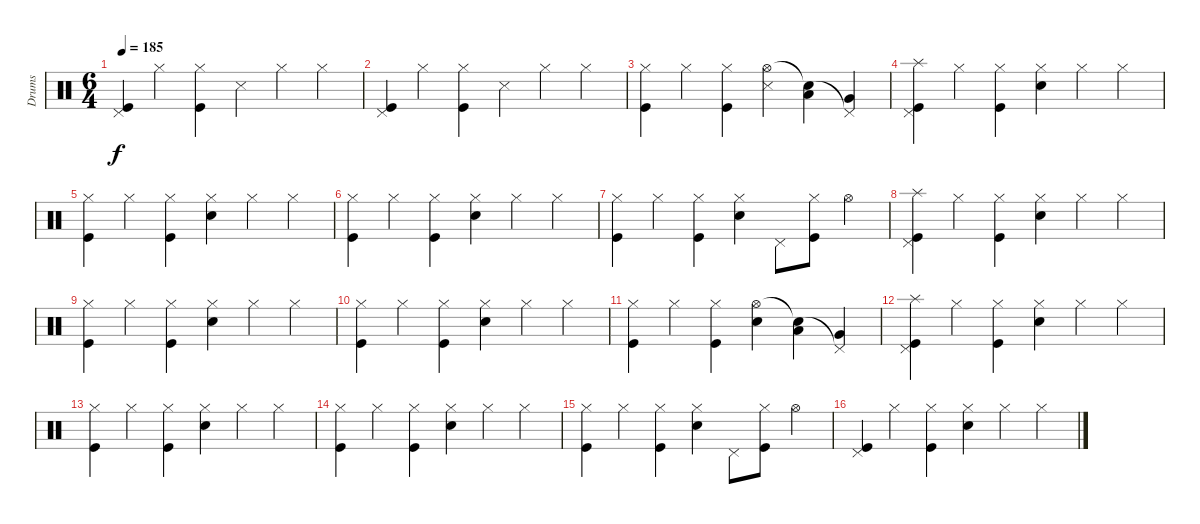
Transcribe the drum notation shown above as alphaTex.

\track ("Drums" "Drums") {instrument percussion}
\staff {score}
\articulation defaults
\ts (6 4)
\tempo 185
\clef neutral
\ks c
("Pedal Hi-Hat (hit)" "Kick (hit)").4{dy f} "Hi-Hat (closed)".4 ("Hi-Hat (closed)" "Kick (hit)").4 "Snare (side stick) 3".4 "Hi-Hat (closed)".4 "Hi-Hat (closed)".4 |
("Pedal Hi-Hat (hit)" "Kick (hit)").4 "Hi-Hat (closed)".4 ("Hi-Hat (closed)" "Kick (hit)").4 "Snare (side stick) 3".4 "Hi-Hat (closed)".4 "Hi-Hat (closed)".4 |
("Hi-Hat (closed)" "Kick (hit)").4 "Hi-Hat (closed)".4 ("Hi-Hat (closed)" "Kick (hit)").4 ("Hi-Hat (open)" "Snare (side stick) 3").4 ("Snare (hit)"{t} "Low Tom (hit)").4 ("Pedal Hi-Hat (hit)"{t} "Very Low Tom (hit)").4 |
("Splash (hit)" "Pedal Hi-Hat (hit)" "Kick (hit)").4 "Hi-Hat (closed)".4 ("Hi-Hat (closed)" "Kick (hit)").4 ("Hi-Hat (closed)" "Electric Snare (hit)").4 "Hi-Hat (closed)".4 "Hi-Hat (closed)".4 |
("Hi-Hat (closed)" "Kick (hit)").4 "Hi-Hat (closed)".4 ("Hi-Hat (closed)" "Kick (hit)").4 ("Hi-Hat (closed)" "Electric Snare (hit)").4 "Hi-Hat (closed)".4 "Hi-Hat (closed)".4 |
("Hi-Hat (closed)" "Kick (hit)").4 "Hi-Hat (closed)".4 ("Hi-Hat (closed)" "Kick (hit)").4 ("Hi-Hat (closed)" "Electric Snare (hit)").4 "Hi-Hat (closed)".4 "Hi-Hat (closed)".4 |
("Hi-Hat (closed)" "Kick (hit)").4 "Hi-Hat (closed)".4 ("Hi-Hat (closed)" "Kick (hit)").4 ("Hi-Hat (closed)" "Electric Snare (hit)").4 "Pedal Hi-Hat (hit)".8 ("Hi-Hat (closed)" "Kick (hit)").8 "Hi-Hat (open)".4 |
("Splash (hit)" "Pedal Hi-Hat (hit)" "Kick (hit)").4 "Hi-Hat (closed)".4 ("Hi-Hat (closed)" "Kick (hit)").4 ("Hi-Hat (closed)" "Electric Snare (hit)").4 "Hi-Hat (closed)".4 "Hi-Hat (closed)".4 |
("Hi-Hat (closed)" "Kick (hit)").4 "Hi-Hat (closed)".4 ("Hi-Hat (closed)" "Kick (hit)").4 ("Hi-Hat (closed)" "Electric Snare (hit)").4 "Hi-Hat (closed)".4 "Hi-Hat (closed)".4 |
("Hi-Hat (closed)" "Kick (hit)").4 "Hi-Hat (closed)".4 ("Hi-Hat (closed)" "Kick (hit)").4 ("Hi-Hat (closed)" "Electric Snare (hit)").4 "Hi-Hat (closed)".4 "Hi-Hat (closed)".4 |
("Hi-Hat (closed)" "Kick (hit)").4 "Hi-Hat (closed)".4 ("Hi-Hat (closed)" "Kick (hit)").4 ("Hi-Hat (open)" "Electric Snare (hit)").4 ("Snare (hit)"{t} "Low Tom (hit)").4 ("Pedal Hi-Hat (hit)"{t} "Very Low Tom (hit)").4 |
("Splash (hit)" "Pedal Hi-Hat (hit)" "Kick (hit)").4 "Hi-Hat (closed)".4 ("Hi-Hat (closed)" "Kick (hit)").4 ("Hi-Hat (closed)" "Electric Snare (hit)").4 "Hi-Hat (closed)".4 "Hi-Hat (closed)".4 |
("Hi-Hat (closed)" "Kick (hit)").4 "Hi-Hat (closed)".4 ("Hi-Hat (closed)" "Kick (hit)").4 ("Hi-Hat (closed)" "Electric Snare (hit)").4 "Hi-Hat (closed)".4 "Hi-Hat (closed)".4 |
("Hi-Hat (closed)" "Kick (hit)").4 "Hi-Hat (closed)".4 ("Hi-Hat (closed)" "Kick (hit)").4 ("Hi-Hat (closed)" "Electric Snare (hit)").4 "Hi-Hat (closed)".4 "Hi-Hat (closed)".4 |
("Hi-Hat (closed)" "Kick (hit)").4 "Hi-Hat (closed)".4 ("Hi-Hat (closed)" "Kick (hit)").4 ("Hi-Hat (closed)" "Electric Snare (hit)").4 "Pedal Hi-Hat (hit)".8 ("Hi-Hat (closed)" "Kick (hit)").8 "Hi-Hat (open)".4 |
("Pedal Hi-Hat (hit)" "Kick (hit)").4 "Hi-Hat (closed)".4 ("Hi-Hat (closed)" "Kick (hit)").4 ("Hi-Hat (closed)" "Electric Snare (hit)").4 "Hi-Hat (closed)".4 "Hi-Hat (closed)".4
